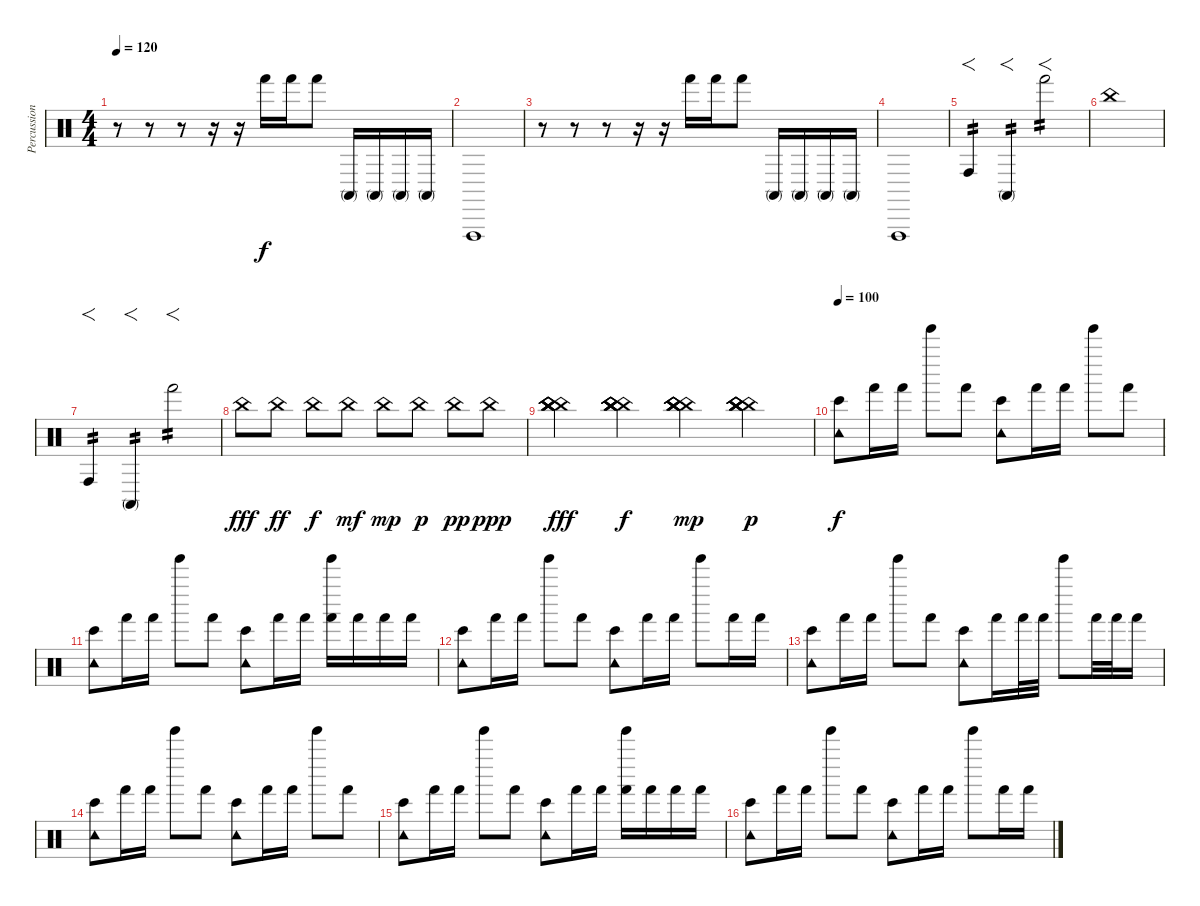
\track ("Percussions" "Percussion") {instrument percussion}
\staff {score}
\articulation defaults
\ts (4 4)
\tempo 120
\tempo 100
\tempo 120
\clef neutral
\ks c
r.8{dy f volume 11} r.8 r.8 r.16 r.16 "Hand (hit)".16 "Hand (hit)".16 "Hand (hit)".8 "Conga high (mute)".16 "Conga high (mute)".16 "Conga high (mute)".16 "Conga high (mute)".16 |
"Vibraslap (hit)".1 |
r.8 r.8 r.8 r.16 r.16 "Hand (hit)".16 "Hand (hit)".16 "Hand (hit)".8 "Conga high (mute)".16 "Conga high (mute)".16 "Conga high (mute)".16 "Conga high (mute)".16 |
"Vibraslap (hit)".1 |
"Conga high (hit)".4{f tp 2} "Conga high (mute)".4{f tp 2} "Hand (hit)".2{f tp 2} |
"China (hit)".1 |
"Conga high (hit)".4{f tp 2} "Conga high (mute)".4{f tp 2} "Hand (hit)".2{f tp 2} |
"China (hit)".8{dy fff} "China (hit)".8{dy ff} "China (hit)".8{dy f} "China (hit)".8{dy mf} "China (hit)".8{dy mp} "China (hit)".8{dy p} "China (hit)".8{dy pp} "China (hit)".8{dy ppp} |
("China (hit)" "China (hit)" "China (hit)" "China (hit)" "China (hit)" "China (hit)").4{dy fff} ("China (hit)" "China (hit)" "China (hit)" "China (hit)" "China (hit)" "China (hit)").4{dy f} ("China (hit)" "China (hit)" "China (hit)" "China (hit)" "China (hit)" "China (hit)").4{dy mp} ("China (hit)" "China (hit)" "China (hit)" "China (hit)" "China (hit)" "China (hit)").4{dy p} |
\tempo 100
("Tambourine (hit)" "Bongo High (hit)").8{dy f} "Hand (hit)".16 "Hand (hit)".16 "Tinkle Bell (hit)".8 "Hand (hit)".8 ("Tambourine (hit)" "Bongo High (hit)").8 "Hand (hit)".16 "Hand (hit)".16 "Tinkle Bell (hit)".8 "Hand (hit)".8 |
("Tambourine (hit)" "Bongo High (hit)").8 "Hand (hit)".16 "Hand (hit)".16 "Tinkle Bell (hit)".8 "Hand (hit)".8 ("Tambourine (hit)" "Bongo High (hit)").8 "Hand (hit)".16 "Hand (hit)".16 ("Tinkle Bell (hit)" "Hand (hit)").16 "Hand (hit)".16 "Hand (hit)".16 "Hand (hit)".16 |
("Tambourine (hit)" "Bongo High (hit)").8 "Hand (hit)".16 "Hand (hit)".16 "Tinkle Bell (hit)".8 "Hand (hit)".8 ("Tambourine (hit)" "Bongo High (hit)").8 "Hand (hit)".16 "Hand (hit)".16 "Tinkle Bell (hit)".8 "Hand (hit)".16 "Hand (hit)".16 |
("Tambourine (hit)" "Bongo High (hit)").8 "Hand (hit)".16 "Hand (hit)".16 "Tinkle Bell (hit)".8 "Hand (hit)".8 ("Tambourine (hit)" "Bongo High (hit)").8 "Hand (hit)".16 "Hand (hit)".32 "Hand (hit)".32 "Tinkle Bell (hit)".8 "Hand (hit)".32 "Hand (hit)".32 "Hand (hit)".16 |
("Tambourine (hit)" "Bongo High (hit)").8 "Hand (hit)".16 "Hand (hit)".16 "Tinkle Bell (hit)".8 "Hand (hit)".8 ("Tambourine (hit)" "Bongo High (hit)").8 "Hand (hit)".16 "Hand (hit)".16 "Tinkle Bell (hit)".8 "Hand (hit)".8 |
("Tambourine (hit)" "Bongo High (hit)").8 "Hand (hit)".16 "Hand (hit)".16 "Tinkle Bell (hit)".8 "Hand (hit)".8 ("Tambourine (hit)" "Bongo High (hit)").8 "Hand (hit)".16 "Hand (hit)".16 ("Tinkle Bell (hit)" "Hand (hit)").16 "Hand (hit)".16 "Hand (hit)".16 "Hand (hit)".16 |
("Tambourine (hit)" "Bongo High (hit)").8 "Hand (hit)".16 "Hand (hit)".16 "Tinkle Bell (hit)".8 "Hand (hit)".8 ("Tambourine (hit)" "Bongo High (hit)").8 "Hand (hit)".16 "Hand (hit)".16 "Tinkle Bell (hit)".8 "Hand (hit)".16 "Hand (hit)".16
